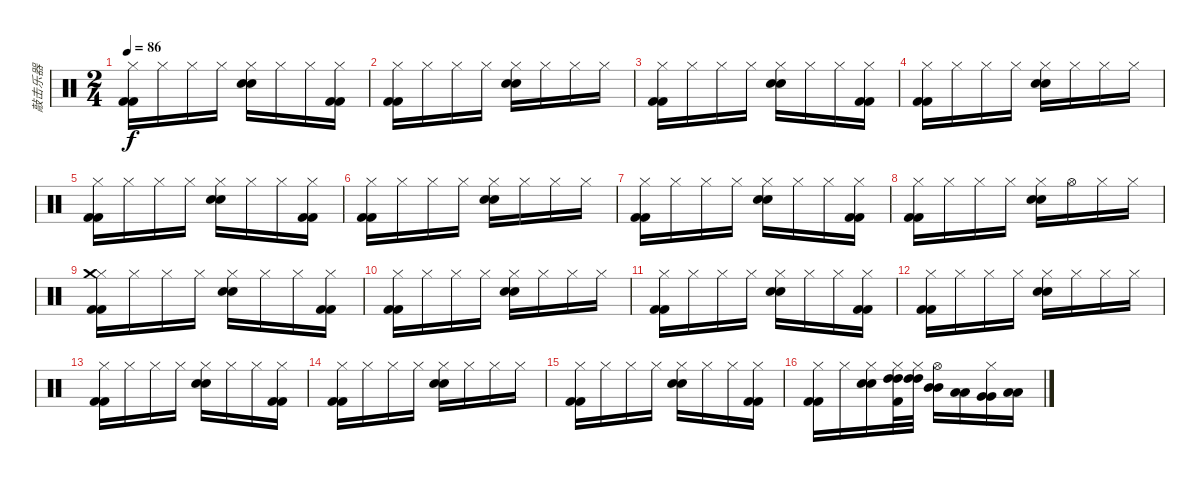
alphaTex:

\track ("敲击乐器" "敲击乐器") {instrument percussion}
\staff {score}
\articulation defaults
\ts (2 4)
\tempo 86
\clef neutral
\ks c
("Hi-Hat (closed)" "Kick (hit) 2" "Kick (hit) 2").16{dy f} "Hi-Hat (closed)".16 "Hi-Hat (closed)".16 "Hi-Hat (closed)".16 ("Hi-Hat (closed)" "Electric Snare (hit)" "Electric Snare (hit)").16 "Hi-Hat (closed)".16 "Hi-Hat (closed)".16 ("Hi-Hat (closed)" "Kick (hit) 2" "Kick (hit) 2").16 |
("Hi-Hat (closed)" "Kick (hit) 2" "Kick (hit) 2").16 "Hi-Hat (closed)".16 "Hi-Hat (closed)".16 "Hi-Hat (closed)".16 ("Hi-Hat (closed)" "Electric Snare (hit)" "Electric Snare (hit)").16 "Hi-Hat (closed)".16 "Hi-Hat (closed)".16 "Hi-Hat (closed)".16 |
("Hi-Hat (closed)" "Kick (hit) 2" "Kick (hit) 2").16 "Hi-Hat (closed)".16 "Hi-Hat (closed)".16 "Hi-Hat (closed)".16 ("Hi-Hat (closed)" "Electric Snare (hit)" "Electric Snare (hit)").16 "Hi-Hat (closed)".16 "Hi-Hat (closed)".16 ("Hi-Hat (closed)" "Kick (hit) 2" "Kick (hit) 2").16 |
("Hi-Hat (closed)" "Kick (hit) 2" "Kick (hit) 2").16 "Hi-Hat (closed)".16 "Hi-Hat (closed)".16 "Hi-Hat (closed)".16 ("Hi-Hat (closed)" "Electric Snare (hit)" "Electric Snare (hit)").16 "Hi-Hat (closed)".16 "Hi-Hat (closed)".16 "Hi-Hat (closed)".16 |
("Hi-Hat (closed)" "Kick (hit) 2" "Kick (hit) 2").16 "Hi-Hat (closed)".16 "Hi-Hat (closed)".16 "Hi-Hat (closed)".16 ("Hi-Hat (closed)" "Electric Snare (hit)" "Electric Snare (hit)").16 "Hi-Hat (closed)".16 "Hi-Hat (closed)".16 ("Hi-Hat (closed)" "Kick (hit) 2" "Kick (hit) 2").16 |
("Hi-Hat (closed)" "Kick (hit) 2" "Kick (hit) 2").16 "Hi-Hat (closed)".16 "Hi-Hat (closed)".16 "Hi-Hat (closed)".16 ("Hi-Hat (closed)" "Electric Snare (hit)" "Electric Snare (hit)").16 "Hi-Hat (closed)".16 "Hi-Hat (closed)".16 "Hi-Hat (closed)".16 |
("Hi-Hat (closed)" "Kick (hit) 2" "Kick (hit) 2").16 "Hi-Hat (closed)".16 "Hi-Hat (closed)".16 "Hi-Hat (closed)".16 ("Hi-Hat (closed)" "Electric Snare (hit)" "Electric Snare (hit)").16 "Hi-Hat (closed)".16 "Hi-Hat (closed)".16 ("Hi-Hat (closed)" "Kick (hit) 2" "Kick (hit) 2").16 |
("Hi-Hat (closed)" "Kick (hit) 2" "Kick (hit) 2").16 "Hi-Hat (closed)".16 "Hi-Hat (closed)".16 "Hi-Hat (closed)".16 ("Hi-Hat (closed)" "Electric Snare (hit)" "Electric Snare (hit)").16 "Hi-Hat (open)".16 "Hi-Hat (closed)".16 "Hi-Hat (closed)".16 |
("Hi-Hat (closed)" "Crash medium (hit)" "Kick (hit) 2" "Kick (hit) 2").16 "Hi-Hat (closed)".16 "Hi-Hat (closed)".16 "Hi-Hat (closed)".16 ("Hi-Hat (closed)" "Electric Snare (hit)" "Electric Snare (hit)").16 "Hi-Hat (closed)".16 "Hi-Hat (closed)".16 ("Hi-Hat (closed)" "Kick (hit) 2" "Kick (hit) 2").16 |
("Hi-Hat (closed)" "Kick (hit) 2" "Kick (hit) 2").16 "Hi-Hat (closed)".16 "Hi-Hat (closed)".16 "Hi-Hat (closed)".16 ("Hi-Hat (closed)" "Electric Snare (hit)" "Electric Snare (hit)").16 "Hi-Hat (closed)".16 "Hi-Hat (closed)".16 "Hi-Hat (closed)".16 |
("Hi-Hat (closed)" "Kick (hit) 2" "Kick (hit) 2").16 "Hi-Hat (closed)".16 "Hi-Hat (closed)".16 "Hi-Hat (closed)".16 ("Hi-Hat (closed)" "Electric Snare (hit)" "Electric Snare (hit)").16 "Hi-Hat (closed)".16 "Hi-Hat (closed)".16 ("Hi-Hat (closed)" "Kick (hit) 2" "Kick (hit) 2").16 |
("Hi-Hat (closed)" "Kick (hit) 2" "Kick (hit) 2").16 "Hi-Hat (closed)".16 "Hi-Hat (closed)".16 "Hi-Hat (closed)".16 ("Hi-Hat (closed)" "Electric Snare (hit)" "Electric Snare (hit)").16 "Hi-Hat (closed)".16 "Hi-Hat (closed)".16 "Hi-Hat (closed)".16 |
("Hi-Hat (closed)" "Kick (hit) 2" "Kick (hit) 2").16 "Hi-Hat (closed)".16 "Hi-Hat (closed)".16 "Hi-Hat (closed)".16 ("Hi-Hat (closed)" "Electric Snare (hit)" "Electric Snare (hit)").16 "Hi-Hat (closed)".16 "Hi-Hat (closed)".16 ("Hi-Hat (closed)" "Kick (hit) 2" "Kick (hit) 2").16 |
("Hi-Hat (closed)" "Kick (hit) 2" "Kick (hit) 2").16 "Hi-Hat (closed)".16 "Hi-Hat (closed)".16 "Hi-Hat (closed)".16 ("Hi-Hat (closed)" "Electric Snare (hit)" "Electric Snare (hit)").16 "Hi-Hat (closed)".16 "Hi-Hat (closed)".16 "Hi-Hat (closed)".16 |
("Hi-Hat (closed)" "Kick (hit) 2" "Kick (hit) 2").16 "Hi-Hat (closed)".16 "Hi-Hat (closed)".16 "Hi-Hat (closed)".16 ("Hi-Hat (closed)" "Electric Snare (hit)" "Electric Snare (hit)").16 "Hi-Hat (closed)".16 "Hi-Hat (closed)".16 ("Hi-Hat (closed)" "Kick (hit) 2" "Kick (hit) 2").16 |
("Hi-Hat (closed)" "Kick (hit) 2" "Kick (hit) 2").16 "Hi-Hat (closed)".16 ("Hi-Hat (closed)" "Electric Snare (hit)" "Electric Snare (hit)").16 ("Hi-Hat (closed)" "High Tom (hit)" "High Tom (hit)" "Kick (hit) 2").32 ("Hi-Hat (closed)" "High Tom (hit)" "High Tom (hit)").32 ("Hi-Hat (open)" "Mid Tom (hit)" "Mid Tom (hit)").16 ("Low Tom (hit)" "Low Tom (hit)").16 ("Hi-Hat (closed)" "Very Low Tom (hit)" "Very Low Tom (hit)").16 ("Low Floor Tom (hit)" "Low Floor Tom (hit)").16
